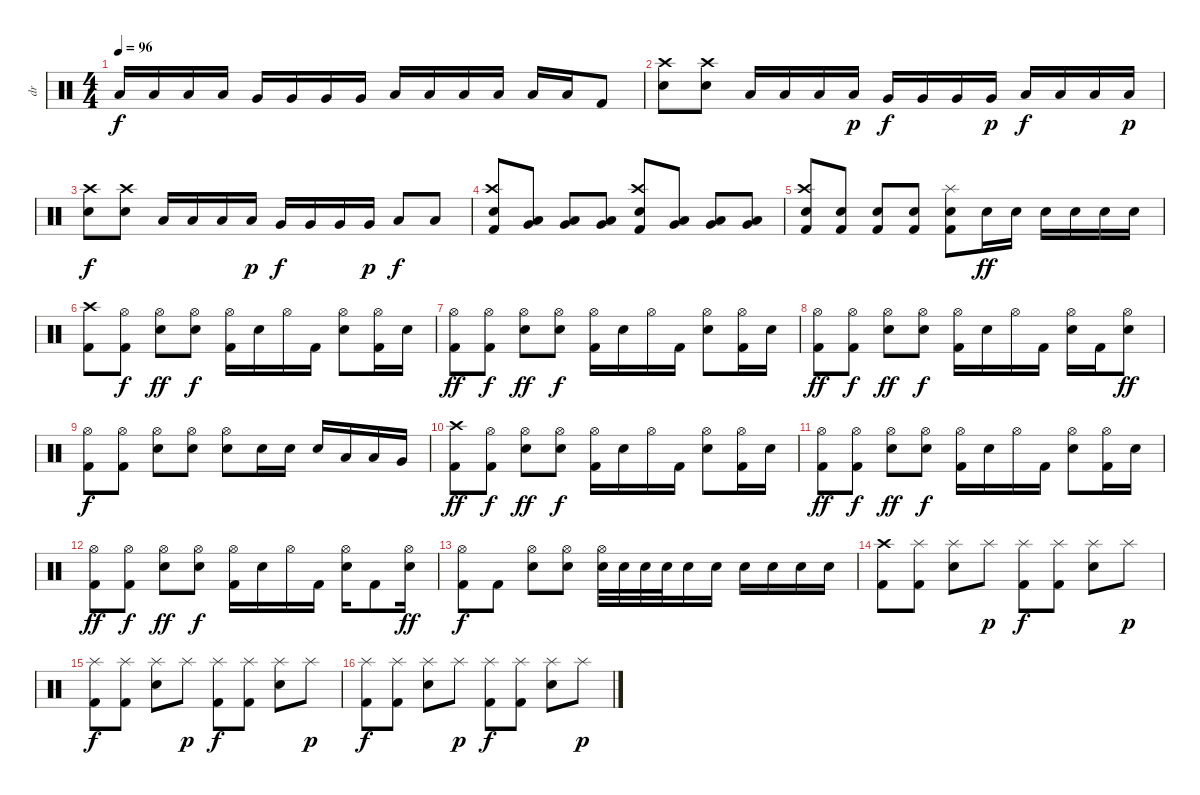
\track ("dr" "dr") {instrument percussion}
\staff {score}
\articulation defaults
\ts (4 4)
\tempo 96
\clef neutral
\ks c "Low Floor Tom (hit)".16{dy f} "Low Floor Tom (hit)".16 "Low Floor Tom (hit)".16 "Low Floor Tom (hit)".16 "Very Low Tom (hit)".16 "Very Low Tom (hit)".16 "Very Low Tom (hit)".16 "Very Low Tom (hit)".16 "Low Tom (hit)".16 "Low Tom (hit)".16 "Low Tom (hit)".16 "Low Tom (hit)".16 "Low Tom (hit)".16 "Low Tom (hit)".16 "Kick (hit) 2".8
|
("Crash high (hit)" "Electric Snare (hit)").8 ("Crash high (hit)" "Electric Snare (hit)").8 "Low Tom (hit)".16 "Low Tom (hit)".16 "Low Tom (hit)".16 "Low Tom (hit)".16{dy p} "Very Low Tom (hit)".16{dy f} "Very Low Tom (hit)".16 "Very Low Tom (hit)".16 "Very Low Tom (hit)".16{dy p} "Low Floor Tom (hit)".16{dy f} "Low Floor Tom (hit)".16 "Low Floor Tom (hit)".16 "Low Floor Tom (hit)".16{dy p} |
("Crash high (hit)" "Electric Snare (hit)").8{dy f} ("Crash high (hit)" "Electric Snare (hit)").8 "Low Tom (hit)".16 "Low Tom (hit)".16 "Low Tom (hit)".16 "Low Tom (hit)".16{dy p} "Very Low Tom (hit)".16{dy f} "Very Low Tom (hit)".16 "Very Low Tom (hit)".16 "Very Low Tom (hit)".16{dy p} "Low Floor Tom (hit)".8{dy f} "Low Floor Tom (hit)".8 |
("Crash high (hit)" "Electric Snare (hit)" "Kick (hit) 2").8 ("Low Tom (hit)" "Very Low Tom (hit)").8 ("Low Tom (hit)" "Very Low Tom (hit)").8 ("Very Low Tom (hit)" "Low Floor Tom (hit)").8 ("Crash high (hit)" "Electric Snare (hit)" "Kick (hit) 2").8 ("Low Tom (hit)" "Very Low Tom (hit)").8 ("Low Tom (hit)" "Very Low Tom (hit)").8 ("Very Low Tom (hit)" "Low Floor Tom (hit)").8 |
("Crash high (hit)" "Electric Snare (hit)" "Kick (hit) 2").8 ("Electric Snare (hit)" "Kick (hit) 2").8 ("Electric Snare (hit)" "Kick (hit) 2").8 ("Electric Snare (hit)" "Kick (hit) 2").8 ("Splash (hit)" "Electric Snare (hit)" "Kick (hit) 2").8 "Electric Snare (hit)".16{dy ff} "Electric Snare (hit)".16 "Electric Snare (hit)".16 "Electric Snare (hit)".16 "Electric Snare (hit)".16 "Electric Snare (hit)".16 |
("Crash high (hit)" "Kick (hit) 2").8 ("Hi-Hat (open)" "Kick (hit) 2").8{dy f} ("Hi-Hat (open)" "Electric Snare (hit)").8{dy ff} ("Hi-Hat (open)" "Electric Snare (hit)").8{dy f} ("Hi-Hat (open)" "Kick (hit) 2").16 "Electric Snare (hit)".16 "Hi-Hat (open)".16 "Kick (hit) 2".16 ("Hi-Hat (open)" "Electric Snare (hit)").8 ("Hi-Hat (open)" "Kick (hit) 2").16 "Electric Snare (hit)".16 |
("Hi-Hat (open)" "Kick (hit) 2").8{dy ff} ("Hi-Hat (open)" "Kick (hit) 2").8{dy f} ("Hi-Hat (open)" "Electric Snare (hit)").8{dy ff} ("Hi-Hat (open)" "Electric Snare (hit)").8{dy f} ("Hi-Hat (open)" "Kick (hit) 2").16 "Electric Snare (hit)".16 "Hi-Hat (open)".16 "Kick (hit) 2".16 ("Hi-Hat (open)" "Electric Snare (hit)").8 ("Hi-Hat (open)" "Kick (hit) 2").16 "Electric Snare (hit)".16 |
("Hi-Hat (open)" "Kick (hit) 2").8{dy ff} ("Hi-Hat (open)" "Kick (hit) 2").8{dy f} ("Hi-Hat (open)" "Electric Snare (hit)").8{dy ff} ("Hi-Hat (open)" "Electric Snare (hit)").8{dy f} ("Hi-Hat (open)" "Kick (hit) 2").16 "Electric Snare (hit)".16 "Hi-Hat (open)".16 "Kick (hit) 2".16 ("Hi-Hat (open)" "Electric Snare (hit)").16 "Kick (hit) 2".16 ("Hi-Hat (open)" "Electric Snare (hit)").8{dy ff} |
("Hi-Hat (open)" "Kick (hit) 2").8{dy f} ("Hi-Hat (open)" "Kick (hit) 2").8 ("Hi-Hat (open)" "Electric Snare (hit)").8 ("Hi-Hat (open)" "Electric Snare (hit)").8 ("Hi-Hat (open)" "Electric Snare (hit)").8 "Electric Snare (hit)".16 "Electric Snare (hit)".16 "Electric Snare (hit)".16 "Low Tom (hit)".16 "Low Tom (hit)".16 "Very Low Tom (hit)".16 |
("Crash high (hit)" "Kick (hit) 2").8{dy ff} ("Hi-Hat (open)" "Kick (hit) 2").8{dy f} ("Hi-Hat (open)" "Electric Snare (hit)").8{dy ff} ("Hi-Hat (open)" "Electric Snare (hit)").8{dy f} ("Hi-Hat (open)" "Kick (hit) 2").16 "Electric Snare (hit)".16 "Hi-Hat (open)".16 "Kick (hit) 2".16 ("Hi-Hat (open)" "Electric Snare (hit)").8 ("Hi-Hat (open)" "Kick (hit) 2").16 "Electric Snare (hit)".16 |
("Hi-Hat (open)" "Kick (hit) 2").8{dy ff} ("Hi-Hat (open)" "Kick (hit) 2").8{dy f} ("Hi-Hat (open)" "Electric Snare (hit)").8{dy ff} ("Hi-Hat (open)" "Electric Snare (hit)").8{dy f} ("Hi-Hat (open)" "Kick (hit) 2").16 "Electric Snare (hit)".16 "Hi-Hat (open)".16 "Kick (hit) 2".16 ("Hi-Hat (open)" "Electric Snare (hit)").8 ("Hi-Hat (open)" "Kick (hit) 2").16 "Electric Snare (hit)".16 |
("Hi-Hat (open)" "Kick (hit) 2").8{dy ff} ("Hi-Hat (open)" "Kick (hit) 2").8{dy f} ("Hi-Hat (open)" "Electric Snare (hit)").8{dy ff} ("Hi-Hat (open)" "Electric Snare (hit)").8{dy f} ("Hi-Hat (open)" "Kick (hit) 2").16 "Electric Snare (hit)".16 "Hi-Hat (open)".16 "Kick (hit) 2".16 ("Hi-Hat (open)" "Electric Snare (hit)").16 "Kick (hit) 2".8 ("Hi-Hat (open)" "Electric Snare (hit)").16{dy ff} |
("Hi-Hat (open)" "Kick (hit) 2").8{dy f} "Kick (hit) 2".8 ("Hi-Hat (open)" "Electric Snare (hit)").8 ("Hi-Hat (open)" "Electric Snare (hit)").8 ("Hi-Hat (open)" "Electric Snare (hit)").32 "Electric Snare (hit)".32 "Electric Snare (hit)".32 "Electric Snare (hit)".32 "Electric Snare (hit)".16 "Electric Snare (hit)".16 "Electric Snare (hit)".16 "Electric Snare (hit)".16 "Electric Snare (hit)".16 "Electric Snare (hit)".16 |
("Crash high (hit)" "Kick (hit) 2").8 ("Splash (hit)" "Kick (hit) 2").8 ("Splash (hit)" "Electric Snare (hit)").8 "Splash (hit)".8{dy p} ("Splash (hit)" "Kick (hit) 2").8{dy f} ("Splash (hit)" "Kick (hit) 2").8 ("Splash (hit)" "Electric Snare (hit)").8 "Splash (hit)".8{dy p} |
("Splash (hit)" "Kick (hit) 2").8{dy f} ("Splash (hit)" "Kick (hit) 2").8 ("Splash (hit)" "Electric Snare (hit)").8 "Splash (hit)".8{dy p} ("Splash (hit)" "Kick (hit) 2").8{dy f} ("Splash (hit)" "Kick (hit) 2").8 ("Splash (hit)" "Electric Snare (hit)").8 "Splash (hit)".8{dy p} |
("Splash (hit)" "Kick (hit) 2").8{dy f} ("Splash (hit)" "Kick (hit) 2").8 ("Splash (hit)" "Electric Snare (hit)").8 "Splash (hit)".8{dy p} ("Splash (hit)" "Kick (hit) 2").8{dy f} ("Splash (hit)" "Kick (hit) 2").8 ("Splash (hit)" "Electric Snare (hit)").8 "Splash (hit)".8{dy p}
